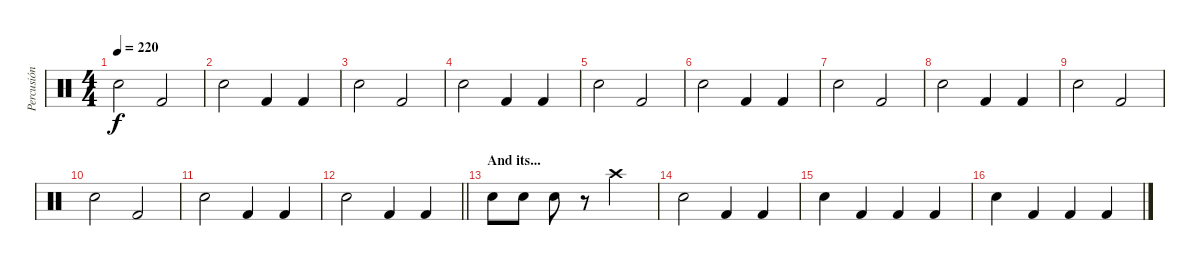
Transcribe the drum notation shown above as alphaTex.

\track ("Percusión" "Percusión") {instrument percussion}
\staff {score}
\articulation defaults
\ts (4 4)
\tempo 220
\clef neutral
\ks c "Electric Snare (hit)".2{dy f} "Kick (hit) 2".2
|
"Electric Snare (hit)".2 "Kick (hit) 2".4 "Kick (hit) 2".4 |
"Electric Snare (hit)".2 "Kick (hit) 2".2 |
"Electric Snare (hit)".2 "Kick (hit) 2".4 "Kick (hit) 2".4 |
"Electric Snare (hit)".2 "Kick (hit) 2".2 |
"Electric Snare (hit)".2 "Kick (hit) 2".4 "Kick (hit) 2".4 |
"Electric Snare (hit)".2 "Kick (hit) 2".2 |
"Electric Snare (hit)".2 "Kick (hit) 2".4 "Kick (hit) 2".4 |
"Electric Snare (hit)".2 "Kick (hit) 2".2 |
"Electric Snare (hit)".2 "Kick (hit) 2".2 |
"Electric Snare (hit)".2 "Kick (hit) 2".4 "Kick (hit) 2".4 |
\barLineRight lightlight "Electric Snare (hit)".2 "Kick (hit) 2".4 "Kick (hit) 2".4
|
\section ("" "And its...")
"Electric Snare (hit)".8 "Electric Snare (hit)".8 "Electric Snare (hit)".8 r.8 "Crash high (hit)".2 |
"Electric Snare (hit)".2 "Kick (hit) 2".4 "Kick (hit) 2".4 |
"Electric Snare (hit)".4 "Kick (hit) 2".4 "Kick (hit) 2".4 "Kick (hit) 2".4 |
"Electric Snare (hit)".4 "Kick (hit) 2".4 "Kick (hit) 2".4 "Kick (hit) 2".4
